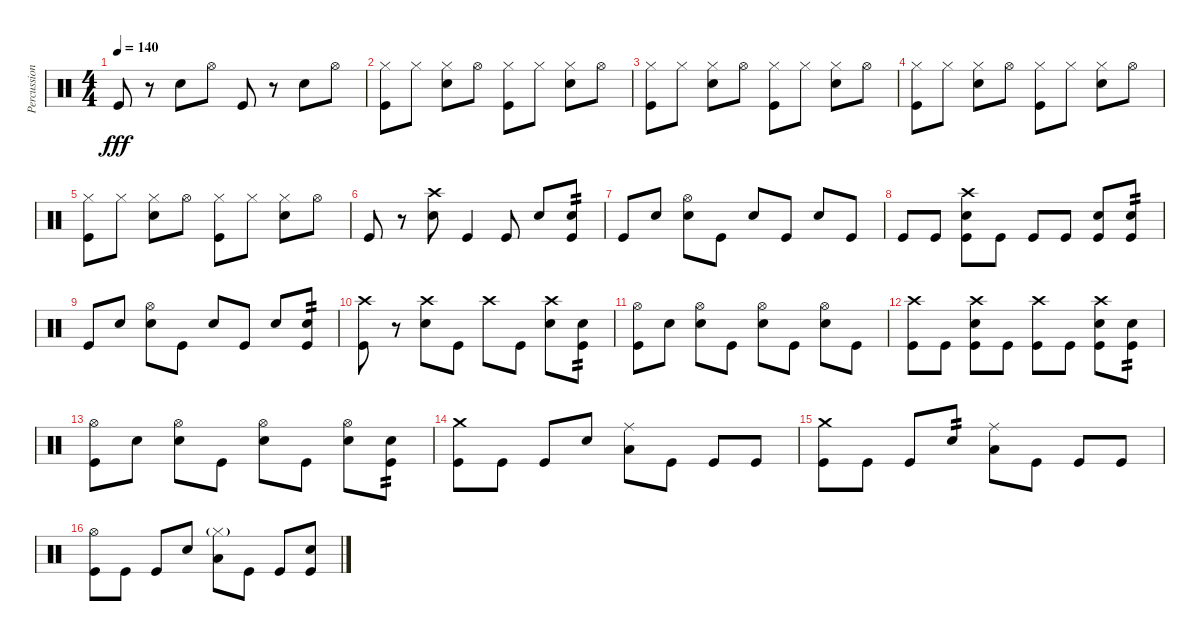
\track ("Percussion" "Percussion") {instrument percussion}
\staff {score}
\articulation defaults
\ts (4 4)
\tempo 140
\clef neutral
\ks c "Kick (hit)".8{dy fff}
r.8 "Snare (hit) 2".8 "Hi-Hat (open)".8 "Kick (hit)".8 r.8 "Snare (hit) 2".8 "Hi-Hat (open)".8 |
("Hi-Hat (closed)" "Kick (hit)").8 "Hi-Hat (closed)".8 ("Hi-Hat (closed)" "Snare (hit) 2").8 "Hi-Hat (open)".8 ("Hi-Hat (closed)" "Kick (hit)").8 "Hi-Hat (closed)".8 ("Hi-Hat (closed)" "Snare (hit) 2").8 "Hi-Hat (open)".8 |
("Hi-Hat (closed)" "Kick (hit)").8 "Hi-Hat (closed)".8 ("Hi-Hat (closed)" "Snare (hit) 2").8 "Hi-Hat (open)".8 ("Hi-Hat (closed)" "Kick (hit)").8 "Hi-Hat (closed)".8 ("Hi-Hat (closed)" "Snare (hit) 2").8 "Hi-Hat (open)".8 |
("Hi-Hat (closed)" "Kick (hit)").8 "Hi-Hat (closed)".8 ("Hi-Hat (closed)" "Snare (hit) 2").8 "Hi-Hat (open)".8 ("Hi-Hat (closed)" "Kick (hit)").8 "Hi-Hat (closed)".8 ("Hi-Hat (closed)" "Snare (hit) 2").8 "Hi-Hat (open)".8 |
("Hi-Hat (closed)" "Kick (hit)").8 "Hi-Hat (closed)".8 ("Hi-Hat (closed)" "Snare (hit) 2").8 "Hi-Hat (open)".8 ("Hi-Hat (closed)" "Kick (hit)").8 "Hi-Hat (closed)".8 ("Hi-Hat (closed)" "Snare (hit) 2").8 "Hi-Hat (open)".8 |
"Kick (hit)".8 r.8 ("Crash high (hit)" "Snare (hit) 2").8 "Kick (hit)".4 "Kick (hit)".8 "Snare (hit) 2".8 ("Snare (hit) 2" "Kick (hit)").8{tp 2} |
"Kick (hit)".8 "Snare (hit) 2".8 ("Hi-Hat (open)" "Snare (hit) 2").8 "Kick (hit)".8 "Snare (hit) 2".8 "Kick (hit)".8 "Snare (hit) 2".8 "Kick (hit)".8 |
"Kick (hit)".8 "Kick (hit)".8 ("Crash high (hit)" "Snare (hit) 2" "Kick (hit)").8 "Kick (hit)".8 "Kick (hit)".8 "Kick (hit)".8 ("Snare (hit) 2" "Kick (hit)").8 ("Snare (hit) 2" "Kick (hit)").8{tp 2} |
"Kick (hit)".8 "Snare (hit) 2".8 ("Hi-Hat (open)" "Snare (hit) 2").8 "Kick (hit)".8 "Snare (hit) 2".8 "Kick (hit)".8 "Snare (hit) 2".8 ("Snare (hit) 2" "Kick (hit)").8{tp 2} |
("Crash high (hit)" "Kick (hit)").8 r.8 ("Crash high (hit)" "Snare (hit) 2").8 "Kick (hit)".8 "Crash high (hit)".8 "Kick (hit)".8 ("Crash high (hit)" "Snare (hit) 2").8 ("Snare (hit) 2" "Kick (hit)").8{tp 2} |
("Hi-Hat (open)" "Kick (hit)").8 "Snare (hit) 2".8 ("Hi-Hat (open)" "Snare (hit) 2").8 "Kick (hit)".8 ("Hi-Hat (open)" "Snare (hit) 2").8 "Kick (hit)".8 ("Hi-Hat (open)" "Snare (hit) 2").8 "Kick (hit)".8 |
("Crash high (hit)" "Kick (hit)").8 "Kick (hit)".8 ("Crash high (hit)" "Snare (hit) 2" "Kick (hit)").8 "Kick (hit)".8 ("Crash high (hit)" "Kick (hit)").8 "Kick (hit)".8 ("Crash high (hit)" "Snare (hit) 2" "Kick (hit)").8 ("Snare (hit) 2" "Kick (hit)").8{tp 2} |
("Hi-Hat (open)" "Kick (hit)").8 "Snare (hit) 2".8 ("Hi-Hat (open)" "Snare (hit) 2").8 "Kick (hit)".8 ("Hi-Hat (open)" "Snare (hit) 2").8 "Kick (hit)".8 ("Hi-Hat (open)" "Snare (hit) 2").8 ("Snare (hit) 2" "Kick (hit)").8{tp 2} |
("Crash medium (hit)" "Kick (hit)").8 "Kick (hit)".8 "Kick (hit)".8 "Snare (hit) 2".8 ("Ride (middle)" "Low Floor Tom (hit)").8 "Kick (hit)".8 "Kick (hit)".8 "Kick (hit)".8 |
("Crash medium (hit)" "Kick (hit)").8 "Kick (hit)".8 "Kick (hit)".8 "Snare (hit) 2".8{tp 2} ("Ride (middle)" "Low Floor Tom (hit)").8 "Kick (hit)".8 "Kick (hit)".8 "Kick (hit)".8 |
("Hi-Hat (open)" "Kick (hit)").8 "Kick (hit)".8 "Kick (hit)".8 "Snare (hit) 2".8 ("Hi-Hat (closed)"{g} "Low Floor Tom (hit)").8 "Kick (hit)".8 "Kick (hit)".8 ("Snare (hit) 2" "Kick (hit)").8
